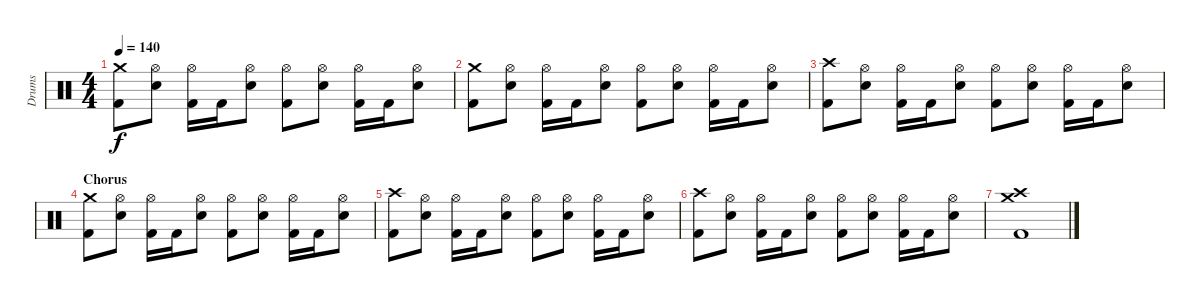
\track ("Drums" "Drums") {instrument percussion}
\staff {score}
\articulation defaults
\ts (4 4)
\tempo 140
\clef neutral
\ks c
("Crash medium (hit)" "Kick (hit) 2").8{dy f} ("Hi-Hat (open)" "Electric Snare (hit)").8 ("Hi-Hat (open)" "Kick (hit) 2").16 "Kick (hit) 2".16 ("Hi-Hat (open)" "Electric Snare (hit)").8 ("Hi-Hat (open)" "Kick (hit) 2").8 ("Hi-Hat (open)" "Electric Snare (hit)").8 ("Hi-Hat (open)" "Kick (hit) 2").16 "Kick (hit) 2".16 ("Hi-Hat (open)" "Electric Snare (hit)").8 |
("Crash medium (hit)" "Kick (hit) 2").8 ("Hi-Hat (open)" "Electric Snare (hit)").8 ("Hi-Hat (open)" "Kick (hit) 2").16 "Kick (hit) 2".16 ("Hi-Hat (open)" "Electric Snare (hit)").8 ("Hi-Hat (open)" "Kick (hit) 2").8 ("Hi-Hat (open)" "Electric Snare (hit)").8 ("Hi-Hat (open)" "Kick (hit) 2").16 "Kick (hit) 2".16 ("Hi-Hat (open)" "Electric Snare (hit)").8 |
("Crash high (hit)" "Kick (hit) 2").8 ("Hi-Hat (open)" "Electric Snare (hit)").8 ("Hi-Hat (open)" "Kick (hit) 2").16 "Kick (hit) 2".16 ("Hi-Hat (open)" "Electric Snare (hit)").8 ("Hi-Hat (open)" "Kick (hit) 2").8 ("Hi-Hat (open)" "Electric Snare (hit)").8 ("Hi-Hat (open)" "Kick (hit) 2").16 "Kick (hit) 2".16 ("Hi-Hat (open)" "Electric Snare (hit)").8 |
\section ("" "Chorus")
("Crash medium (hit)" "Kick (hit) 2").8 ("Hi-Hat (open)" "Electric Snare (hit)").8 ("Hi-Hat (open)" "Kick (hit) 2").16 "Kick (hit) 2".16 ("Hi-Hat (open)" "Electric Snare (hit)").8 ("Hi-Hat (open)" "Kick (hit) 2").8 ("Hi-Hat (open)" "Electric Snare (hit)").8 ("Hi-Hat (open)" "Kick (hit) 2").16 "Kick (hit) 2".16 ("Hi-Hat (open)" "Electric Snare (hit)").8 |
("Crash high (hit)" "Kick (hit) 2").8 ("Hi-Hat (open)" "Electric Snare (hit)").8 ("Hi-Hat (open)" "Kick (hit) 2").16 "Kick (hit) 2".16 ("Hi-Hat (open)" "Electric Snare (hit)").8 ("Hi-Hat (open)" "Kick (hit) 2").8 ("Hi-Hat (open)" "Electric Snare (hit)").8 ("Hi-Hat (open)" "Kick (hit) 2").16 "Kick (hit) 2".16 ("Hi-Hat (open)" "Electric Snare (hit)").8 |
("Crash high (hit)" "Kick (hit) 2").8 ("Hi-Hat (open)" "Electric Snare (hit)").8 ("Hi-Hat (open)" "Kick (hit) 2").16 "Kick (hit) 2".16 ("Hi-Hat (open)" "Electric Snare (hit)").8 ("Hi-Hat (open)" "Kick (hit) 2").8 ("Hi-Hat (open)" "Electric Snare (hit)").8 ("Hi-Hat (open)" "Kick (hit) 2").16 "Kick (hit) 2".16 ("Hi-Hat (open)" "Electric Snare (hit)").8 |
("Crash high (hit)" "Crash medium (hit)" "Kick (hit) 2").1
